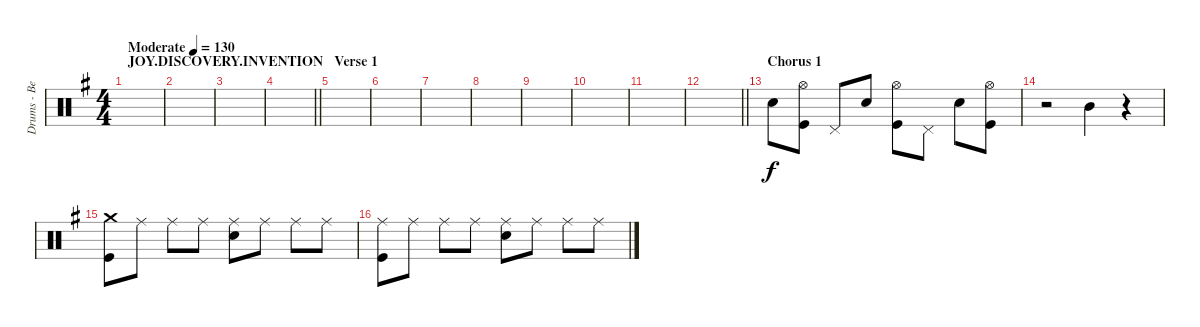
\track ("Drums - Ben Johnston" "Drums - Be") {instrument percussion}
\staff {score}
\articulation defaults
\ts (4 4)
\section ("" "JOY.DISCOVERY.INVENTION")
\tempo (130 "Moderate")
\clef neutral
\ks eminor
|
|
|
\barLineRight lightlight
|
\section ("" "Verse 1")
|
|
|
|
|
|
|
\barLineRight lightlight
|
\section ("" "Chorus 1")
"Snare (hit) 2".8 ("Hi-Hat (open)" "Kick (hit)").8 "Pedal Hi-Hat (hit)".8 "Snare (hit) 2".8 ("Hi-Hat (open)" "Kick (hit)").8 "Pedal Hi-Hat (hit)".8 "Snare (hit) 2".8 ("Hi-Hat (open)" "Kick (hit)").8 |
r.2 "Mid Tom (hit)".4 r.4 |
("Crash medium (hit)" "Kick (hit)").8 "Ride (middle)".8 "Ride (middle)".8 "Ride (middle)".8 ("Ride (middle)" "Snare (hit) 2").8 "Ride (middle)".8 "Ride (middle)".8 "Ride (middle)".8 |
("Ride (middle)" "Kick (hit)").8 "Ride (middle)".8 "Ride (middle)".8 "Ride (middle)".8 ("Ride (middle)" "Snare (hit) 2").8 "Ride (middle)".8 "Ride (middle)".8 "Ride (middle)".8
